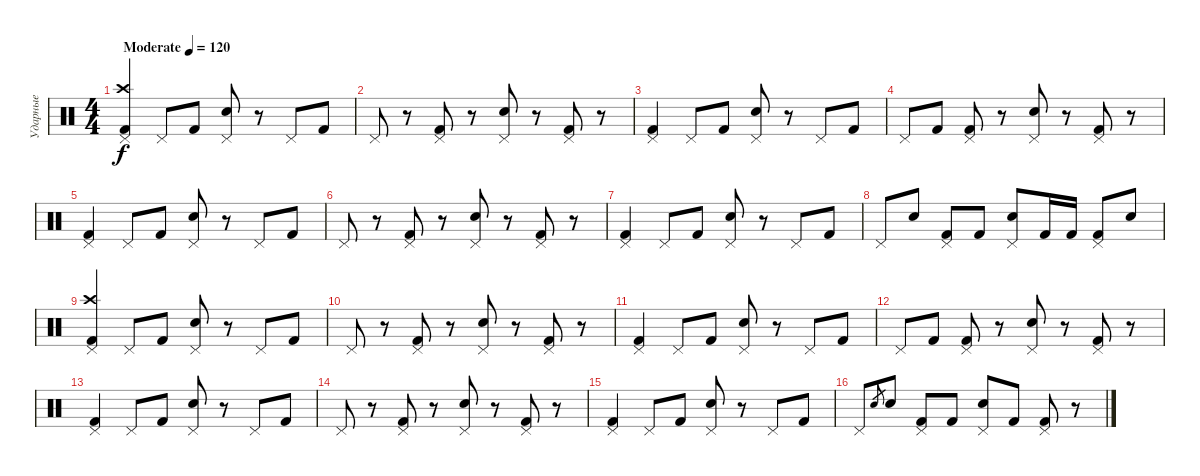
\track ("Ударные" "Ударные") {instrument percussion}
\staff {score}
\articulation defaults
\ts (4 4)
\tempo (120 "Moderate")
\clef neutral
\ks c
("Pedal Hi-Hat (hit)" "Crash high (hit)" "Kick (hit) 2").4{dy f} "Pedal Hi-Hat (hit)".8 "Kick (hit) 2".8 ("Pedal Hi-Hat (hit)" "Electric Snare (hit)").8 r.8 "Pedal Hi-Hat (hit)".8 "Kick (hit) 2".8 |
"Pedal Hi-Hat (hit)".8 r.8 ("Pedal Hi-Hat (hit)" "Kick (hit) 2").8 r.8 ("Pedal Hi-Hat (hit)" "Electric Snare (hit)").8 r.8 ("Pedal Hi-Hat (hit)" "Kick (hit) 2").8 r.8 |
("Pedal Hi-Hat (hit)" "Kick (hit) 2").4 "Pedal Hi-Hat (hit)".8 "Kick (hit) 2".8 ("Pedal Hi-Hat (hit)" "Electric Snare (hit)").8 r.8 "Pedal Hi-Hat (hit)".8 "Kick (hit) 2".8 |
"Pedal Hi-Hat (hit)".8 "Kick (hit) 2".8 ("Pedal Hi-Hat (hit)" "Kick (hit) 2").8 r.8 ("Pedal Hi-Hat (hit)" "Electric Snare (hit)").8 r.8 ("Pedal Hi-Hat (hit)" "Kick (hit) 2").8 r.8 |
("Pedal Hi-Hat (hit)" "Kick (hit) 2").4 "Pedal Hi-Hat (hit)".8 "Kick (hit) 2".8 ("Pedal Hi-Hat (hit)" "Electric Snare (hit)").8 r.8 "Pedal Hi-Hat (hit)".8 "Kick (hit) 2".8 |
"Pedal Hi-Hat (hit)".8 r.8 ("Pedal Hi-Hat (hit)" "Kick (hit) 2").8 r.8 ("Pedal Hi-Hat (hit)" "Electric Snare (hit)").8 r.8 ("Pedal Hi-Hat (hit)" "Kick (hit) 2").8 r.8 |
("Pedal Hi-Hat (hit)" "Kick (hit) 2").4 "Pedal Hi-Hat (hit)".8 "Kick (hit) 2".8 ("Pedal Hi-Hat (hit)" "Electric Snare (hit)").8 r.8 "Pedal Hi-Hat (hit)".8 "Kick (hit) 2".8 |
"Pedal Hi-Hat (hit)".8 "Electric Snare (hit)".8 ("Kick (hit) 2" "Pedal Hi-Hat (hit)").8 "Kick (hit) 2".8 ("Electric Snare (hit)" "Pedal Hi-Hat (hit)").8 "Kick (hit) 2".16 "Kick (hit) 2".16 ("Kick (hit) 2" "Pedal Hi-Hat (hit)").8 "Electric Snare (hit)".8 |
("Pedal Hi-Hat (hit)" "Crash high (hit)" "Kick (hit) 2").4 "Pedal Hi-Hat (hit)".8 "Kick (hit) 2".8 ("Pedal Hi-Hat (hit)" "Electric Snare (hit)").8 r.8 "Pedal Hi-Hat (hit)".8 "Kick (hit) 2".8 |
"Pedal Hi-Hat (hit)".8 r.8 ("Pedal Hi-Hat (hit)" "Kick (hit) 2").8 r.8 ("Pedal Hi-Hat (hit)" "Electric Snare (hit)").8 r.8 ("Pedal Hi-Hat (hit)" "Kick (hit) 2").8 r.8 |
("Pedal Hi-Hat (hit)" "Kick (hit) 2").4 "Pedal Hi-Hat (hit)".8 "Kick (hit) 2".8 ("Pedal Hi-Hat (hit)" "Electric Snare (hit)").8 r.8 "Pedal Hi-Hat (hit)".8 "Kick (hit) 2".8 |
"Pedal Hi-Hat (hit)".8 "Kick (hit) 2".8 ("Pedal Hi-Hat (hit)" "Kick (hit) 2").8 r.8 ("Pedal Hi-Hat (hit)" "Electric Snare (hit)").8 r.8 ("Pedal Hi-Hat (hit)" "Kick (hit) 2").8 r.8 |
("Pedal Hi-Hat (hit)" "Kick (hit) 2").4 "Pedal Hi-Hat (hit)".8 "Kick (hit) 2".8 ("Pedal Hi-Hat (hit)" "Electric Snare (hit)").8 r.8 "Pedal Hi-Hat (hit)".8 "Kick (hit) 2".8 |
"Pedal Hi-Hat (hit)".8 r.8 ("Pedal Hi-Hat (hit)" "Kick (hit) 2").8 r.8 ("Pedal Hi-Hat (hit)" "Electric Snare (hit)").8 r.8 ("Pedal Hi-Hat (hit)" "Kick (hit) 2").8 r.8 |
("Pedal Hi-Hat (hit)" "Kick (hit) 2").4 "Pedal Hi-Hat (hit)".8 "Kick (hit) 2".8 ("Pedal Hi-Hat (hit)" "Electric Snare (hit)").8 r.8 "Pedal Hi-Hat (hit)".8 "Kick (hit) 2".8 |
"Pedal Hi-Hat (hit)".8 "Electric Snare (hit)".8{gr} "Electric Snare (hit)".8 ("Kick (hit) 2" "Pedal Hi-Hat (hit)").8 "Kick (hit) 2".8 ("Electric Snare (hit)" "Pedal Hi-Hat (hit)").8 "Kick (hit) 2".8 ("Kick (hit) 2" "Pedal Hi-Hat (hit)").8 r.8
